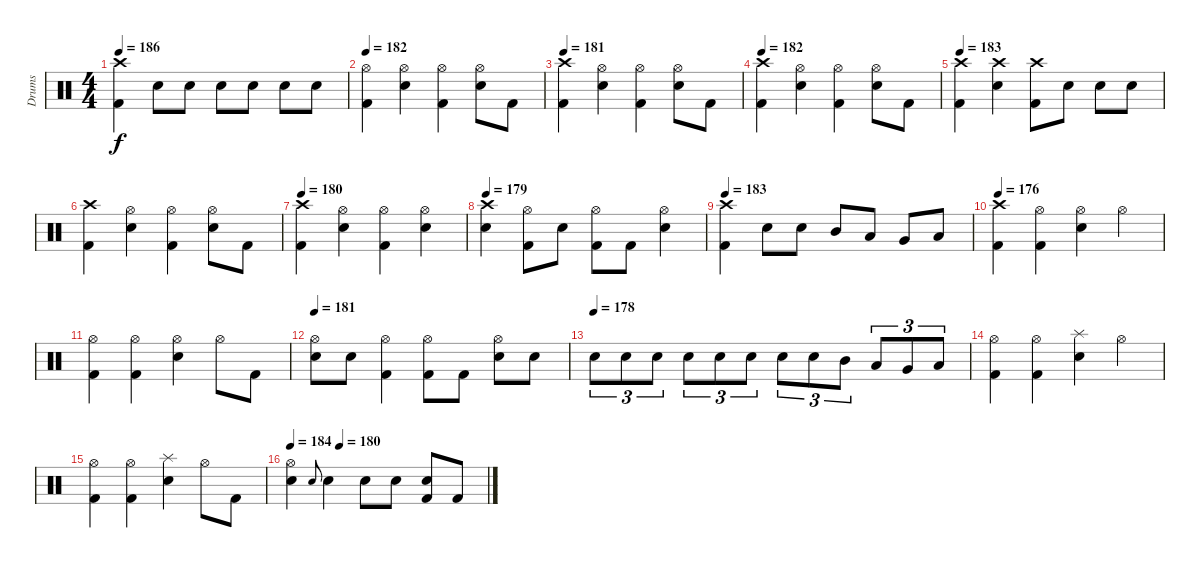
\track ("Drums" "Drums") {instrument percussion}
\staff {score}
\articulation defaults
\ts (4 4)
\tempo 186
\clef neutral
\ks c
("Kick (hit) 2" "Crash high (hit)").4{dy f} "Snare (hit) 2".8 "Snare (hit) 2".8 "Snare (hit) 2".8 "Snare (hit) 2".8 "Snare (hit) 2".8 "Snare (hit) 2".8 |
\tempo 182
("Kick (hit) 2" "Hi-Hat (open)").4 ("Snare (hit) 2" "Hi-Hat (open)").4 ("Hi-Hat (open)" "Kick (hit) 2").4 ("Hi-Hat (open)" "Snare (hit) 2").8 "Kick (hit) 2".8 |
\tempo 181
("Kick (hit) 2" "Crash high (hit)").4 ("Snare (hit) 2" "Hi-Hat (open)").4 ("Hi-Hat (open)" "Kick (hit) 2").4 ("Hi-Hat (open)" "Snare (hit) 2").8 "Kick (hit) 2".8 |
\tempo 182
("Kick (hit) 2" "Crash high (hit)").4 ("Snare (hit) 2" "Hi-Hat (open)").4 ("Hi-Hat (open)" "Kick (hit) 2").4 ("Hi-Hat (open)" "Snare (hit) 2").8 "Kick (hit) 2".8 |
\tempo 183
("Kick (hit) 2" "Crash high (hit)").4 ("Snare (hit) 2" "Crash high (hit)").4 ("Kick (hit) 2" "Crash high (hit)").8 "Snare (hit) 2".8 "Snare (hit) 2".8 "Snare (hit) 2".8 |
("Kick (hit) 2" "Crash high (hit)").4 ("Snare (hit) 2" "Hi-Hat (open)").4 ("Hi-Hat (open)" "Kick (hit) 2").4 ("Hi-Hat (open)" "Snare (hit) 2").8 "Kick (hit) 2".8 |
\tempo 180
("Kick (hit) 2" "Crash high (hit)").4 ("Snare (hit) 2" "Hi-Hat (open)").4 ("Hi-Hat (open)" "Kick (hit) 2").4 ("Hi-Hat (open)" "Snare (hit) 2").4 |
\tempo 179
("Crash high (hit)" "Snare (hit) 2").4 ("Kick (hit) 2" "Hi-Hat (open)").8 "Snare (hit) 2".8 ("Kick (hit) 2" "Hi-Hat (open)").8 "Kick (hit) 2".8 ("Snare (hit) 2" "Hi-Hat (open)").4 |
\tempo 183
("Kick (hit) 2" "Crash high (hit)").4 "Snare (hit) 2".8 "Snare (hit) 2".8 "Mid Tom (hit)".8 "Low Tom (hit)".8 "Very Low Tom (hit)".8 "Low Floor Tom (hit)".8 |
\tempo 176
("Crash high (hit)" "Kick (hit) 2").4 ("Kick (hit) 2" "Hi-Hat (open)").4 ("Snare (hit) 2" "Hi-Hat (open)").4 "Hi-Hat (open)".4 |
("Kick (hit) 2" "Hi-Hat (open)").4 ("Kick (hit) 2" "Hi-Hat (open)").4 ("Snare (hit) 2" "Hi-Hat (open)").4 "Hi-Hat (open)".8 "Kick (hit) 2".8 |
\tempo 181
("Snare (hit) 2" "Hi-Hat (open)").8 "Snare (hit) 2".8 ("Kick (hit) 2" "Hi-Hat (open)").4 ("Kick (hit) 2" "Hi-Hat (open)").8 "Kick (hit) 2".8 ("Snare (hit) 2" "Hi-Hat (open)").8 "Snare (hit) 2".8 |
\tempo (178)
"Snare (hit) 2".8{tu (3 2)} "Snare (hit) 2".8{tu (3 2)} "Snare (hit) 2".8{tu (3 2)} "Snare (hit) 2".8{tu (3 2)} "Snare (hit) 2".8{tu (3 2)} "Snare (hit) 2".8{tu (3 2)} "Snare (hit) 2".8{tu (3 2)} "Snare (hit) 2".8{tu (3 2)} "Mid Tom (hit)".8{tu (3 2)} "Low Tom (hit)".8{tu (3 2)} "Very Low Tom (hit)".8{tu (3 2)} "Low Floor Tom (hit)".8{tu (3 2)} |
("Kick (hit) 2" "Hi-Hat (open)").4 ("Kick (hit) 2" "Hi-Hat (open)").4 ("Snare (hit) 2" "Splash (hit)").4 "Hi-Hat (open)".4 |
("Kick (hit) 2" "Hi-Hat (open)").4 ("Kick (hit) 2" "Hi-Hat (open)").4 ("Snare (hit) 2" "Splash (hit)").4 "Hi-Hat (open)".8 "Kick (hit) 2".8 |
\tempo 184
\tempo (180 0.25)
("Snare (hit) 2" "Hi-Hat (open)").4 "Snare (hit)".8{gr onbeat} "Snare (hit) 2".4 "Snare (hit) 2".8 "Snare (hit) 2".8 ("Kick (hit) 2" "Snare (hit) 2").8 "Kick (hit) 2".8
